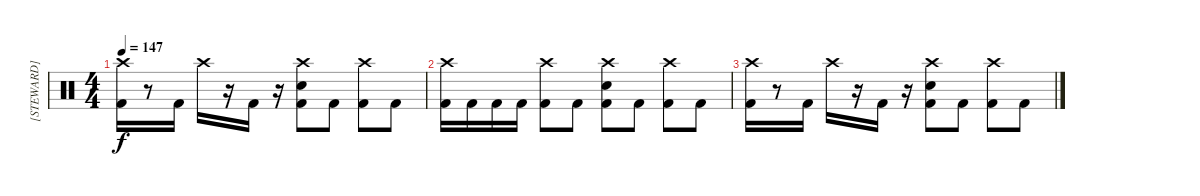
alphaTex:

\track ("[STEWARD]" "[STEWARD]") {instrument percussion}
\staff {score}
\articulation defaults
\ts (4 4)
\tempo 147
\clef neutral
\ks c
("Crash high (hit)" "Kick (hit) 2").16{dy f} r.8 "Kick (hit) 2".16 "Crash high (hit)".16 r.16 "Kick (hit) 2".16 r.16 ("Crash high (hit)" "Snare (hit) 2" "Kick (hit) 2").8 "Kick (hit) 2".8 ("Crash high (hit)" "Kick (hit) 2").8 "Kick (hit) 2".8 |
("Crash high (hit)" "Kick (hit) 2").16 "Kick (hit) 2".16 "Kick (hit) 2".16 "Kick (hit) 2".16 ("Crash high (hit)" "Kick (hit) 2").8 "Kick (hit) 2".8 ("Crash high (hit)" "Snare (hit) 2" "Kick (hit) 2").8 "Kick (hit) 2".8 ("Crash high (hit)" "Kick (hit) 2").8 "Kick (hit) 2".8 |
("Crash high (hit)" "Kick (hit) 2").16 r.8 "Kick (hit) 2".16 "Crash high (hit)".16 r.16 "Kick (hit) 2".16 r.16 ("Crash high (hit)" "Snare (hit) 2" "Kick (hit) 2").8 "Kick (hit) 2".8 ("Crash high (hit)" "Kick (hit) 2").8 "Kick (hit) 2".8
